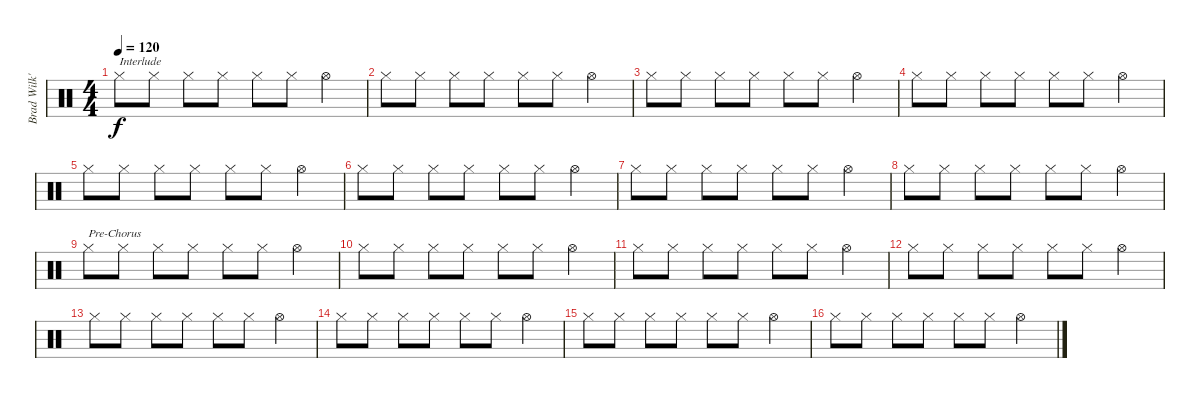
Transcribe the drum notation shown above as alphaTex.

\track ("Brad Wilk's Hi Hat" "Brad Wilk'") {instrument percussion}
\staff {score}
\articulation defaults
\ts (4 4)
\tempo 120
\clef neutral
\ks c "Hi-Hat (closed)".8{txt "Interlude" dy f} "Hi-Hat (closed)".8 "Hi-Hat (closed)".8 "Hi-Hat (closed)".8 "Hi-Hat (closed)".8 "Hi-Hat (closed)".8 "Hi-Hat (open)".4
|
"Hi-Hat (closed)".8 "Hi-Hat (closed)".8 "Hi-Hat (closed)".8 "Hi-Hat (closed)".8 "Hi-Hat (closed)".8 "Hi-Hat (closed)".8 "Hi-Hat (open)".4 |
"Hi-Hat (closed)".8 "Hi-Hat (closed)".8 "Hi-Hat (closed)".8 "Hi-Hat (closed)".8 "Hi-Hat (closed)".8 "Hi-Hat (closed)".8 "Hi-Hat (open)".4 |
"Hi-Hat (closed)".8 "Hi-Hat (closed)".8 "Hi-Hat (closed)".8 "Hi-Hat (closed)".8 "Hi-Hat (closed)".8 "Hi-Hat (closed)".8 "Hi-Hat (open)".4 |
"Hi-Hat (closed)".8 "Hi-Hat (closed)".8 "Hi-Hat (closed)".8 "Hi-Hat (closed)".8 "Hi-Hat (closed)".8 "Hi-Hat (closed)".8 "Hi-Hat (open)".4 |
"Hi-Hat (closed)".8 "Hi-Hat (closed)".8 "Hi-Hat (closed)".8 "Hi-Hat (closed)".8 "Hi-Hat (closed)".8 "Hi-Hat (closed)".8 "Hi-Hat (open)".4 |
"Hi-Hat (closed)".8 "Hi-Hat (closed)".8 "Hi-Hat (closed)".8 "Hi-Hat (closed)".8 "Hi-Hat (closed)".8 "Hi-Hat (closed)".8 "Hi-Hat (open)".4 |
"Hi-Hat (closed)".8 "Hi-Hat (closed)".8 "Hi-Hat (closed)".8 "Hi-Hat (closed)".8 "Hi-Hat (closed)".8 "Hi-Hat (closed)".8 "Hi-Hat (open)".4 |
"Hi-Hat (closed)".8{txt "Pre-Chorus"} "Hi-Hat (closed)".8 "Hi-Hat (closed)".8 "Hi-Hat (closed)".8 "Hi-Hat (closed)".8 "Hi-Hat (closed)".8 "Hi-Hat (open)".4 |
"Hi-Hat (closed)".8 "Hi-Hat (closed)".8 "Hi-Hat (closed)".8 "Hi-Hat (closed)".8 "Hi-Hat (closed)".8 "Hi-Hat (closed)".8 "Hi-Hat (open)".4 |
"Hi-Hat (closed)".8 "Hi-Hat (closed)".8 "Hi-Hat (closed)".8 "Hi-Hat (closed)".8 "Hi-Hat (closed)".8 "Hi-Hat (closed)".8 "Hi-Hat (open)".4 |
"Hi-Hat (closed)".8 "Hi-Hat (closed)".8 "Hi-Hat (closed)".8 "Hi-Hat (closed)".8 "Hi-Hat (closed)".8 "Hi-Hat (closed)".8 "Hi-Hat (open)".4 |
"Hi-Hat (closed)".8 "Hi-Hat (closed)".8 "Hi-Hat (closed)".8 "Hi-Hat (closed)".8 "Hi-Hat (closed)".8 "Hi-Hat (closed)".8 "Hi-Hat (open)".4 |
"Hi-Hat (closed)".8 "Hi-Hat (closed)".8 "Hi-Hat (closed)".8 "Hi-Hat (closed)".8 "Hi-Hat (closed)".8 "Hi-Hat (closed)".8 "Hi-Hat (open)".4 |
"Hi-Hat (closed)".8 "Hi-Hat (closed)".8 "Hi-Hat (closed)".8 "Hi-Hat (closed)".8 "Hi-Hat (closed)".8 "Hi-Hat (closed)".8 "Hi-Hat (open)".4 |
"Hi-Hat (closed)".8 "Hi-Hat (closed)".8 "Hi-Hat (closed)".8 "Hi-Hat (closed)".8 "Hi-Hat (closed)".8 "Hi-Hat (closed)".8 "Hi-Hat (open)".4
